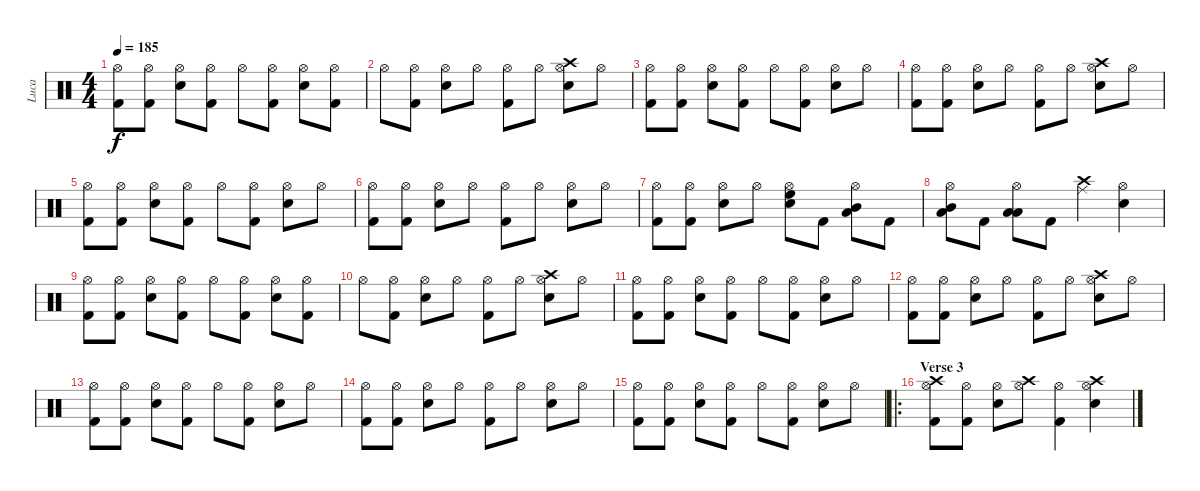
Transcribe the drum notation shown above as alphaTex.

\track ("Luca" "Luca") {instrument percussion}
\staff {score}
\articulation defaults
\ts (4 4)
\tempo 185
\clef neutral
\ks c
("Hi-Hat (open)" "Kick (hit) 2").8{dy f} ("Hi-Hat (open)" "Kick (hit) 2").8 ("Hi-Hat (open)" "Snare (hit) 2").8 ("Hi-Hat (open)" "Kick (hit) 2").8 "Hi-Hat (open)".8 ("Hi-Hat (open)" "Kick (hit) 2").8 ("Hi-Hat (open)" "Snare (hit) 2").8 ("Hi-Hat (open)" "Kick (hit) 2").8 |
"Hi-Hat (open)".8 ("Hi-Hat (open)" "Kick (hit) 2").8 ("Hi-Hat (open)" "Snare (hit) 2").8 "Hi-Hat (open)".8 ("Hi-Hat (open)" "Kick (hit) 2").8 "Hi-Hat (open)".8 ("Hi-Hat (open)" "Crash high (hit)" "Snare (hit) 2").8 "Hi-Hat (open)".8 |
("Hi-Hat (open)" "Kick (hit) 2").8 ("Hi-Hat (open)" "Kick (hit) 2").8 ("Hi-Hat (open)" "Snare (hit) 2").8 ("Hi-Hat (open)" "Kick (hit) 2").8 "Hi-Hat (open)".8 ("Hi-Hat (open)" "Kick (hit) 2").8 ("Hi-Hat (open)" "Snare (hit) 2").8 "Hi-Hat (open)".8 |
("Hi-Hat (open)" "Kick (hit) 2").8 ("Hi-Hat (open)" "Kick (hit) 2").8 ("Hi-Hat (open)" "Snare (hit) 2").8 "Hi-Hat (open)".8 ("Hi-Hat (open)" "Kick (hit) 2").8 "Hi-Hat (open)".8 ("Hi-Hat (open)" "Crash high (hit)" "Snare (hit) 2").8 "Hi-Hat (open)".8 |
("Hi-Hat (open)" "Kick (hit) 2").8 ("Hi-Hat (open)" "Kick (hit) 2").8 ("Hi-Hat (open)" "Snare (hit) 2").8 ("Hi-Hat (open)" "Kick (hit) 2").8 "Hi-Hat (open)".8 ("Hi-Hat (open)" "Kick (hit) 2").8 ("Hi-Hat (open)" "Snare (hit) 2").8 "Hi-Hat (open)".8 |
("Hi-Hat (open)" "Kick (hit) 2").8 ("Hi-Hat (open)" "Kick (hit) 2").8 ("Hi-Hat (open)" "Snare (hit) 2").8 "Hi-Hat (open)".8 ("Hi-Hat (open)" "Kick (hit) 2").8 "Hi-Hat (open)".8 ("Hi-Hat (open)" "Snare (hit) 2").8 "Hi-Hat (open)".8 |
("Hi-Hat (open)" "Kick (hit) 2").8 ("Hi-Hat (open)" "Kick (hit) 2").8 ("Hi-Hat (open)" "Snare (hit) 2").8 "Hi-Hat (open)".8 ("Hi-Hat (open)" "High Floor Tom (hit)" "Snare (hit) 2").8 "Kick (hit) 2".8 ("Hi-Hat (open)" "Mid Tom (hit)" "Low Tom (hit)").8 "Kick (hit) 2".8 |
("Hi-Hat (open)" "Mid Tom (hit)" "Low Floor Tom (hit)").8 "Kick (hit) 2".8 ("Hi-Hat (open)" "Low Tom (hit)" "Low Floor Tom (hit)").8 "Kick (hit) 2".8 ("Crash high (hit)" "Ride (middle)").4 ("Hi-Hat (open)" "Snare (hit) 2").4 |
("Hi-Hat (open)" "Kick (hit) 2").8 ("Hi-Hat (open)" "Kick (hit) 2").8 ("Hi-Hat (open)" "Snare (hit) 2").8 ("Hi-Hat (open)" "Kick (hit) 2").8 "Hi-Hat (open)".8 ("Hi-Hat (open)" "Kick (hit) 2").8 ("Hi-Hat (open)" "Snare (hit) 2").8 ("Hi-Hat (open)" "Kick (hit) 2").8 |
"Hi-Hat (open)".8 ("Hi-Hat (open)" "Kick (hit) 2").8 ("Hi-Hat (open)" "Snare (hit) 2").8 "Hi-Hat (open)".8 ("Hi-Hat (open)" "Kick (hit) 2").8 "Hi-Hat (open)".8 ("Hi-Hat (open)" "Crash high (hit)" "Snare (hit) 2").8 "Hi-Hat (open)".8 |
("Hi-Hat (open)" "Kick (hit) 2").8 ("Hi-Hat (open)" "Kick (hit) 2").8 ("Hi-Hat (open)" "Snare (hit) 2").8 ("Hi-Hat (open)" "Kick (hit) 2").8 "Hi-Hat (open)".8 ("Hi-Hat (open)" "Kick (hit) 2").8 ("Hi-Hat (open)" "Snare (hit) 2").8 "Hi-Hat (open)".8 |
("Hi-Hat (open)" "Kick (hit) 2").8 ("Hi-Hat (open)" "Kick (hit) 2").8 ("Hi-Hat (open)" "Snare (hit) 2").8 "Hi-Hat (open)".8 ("Hi-Hat (open)" "Kick (hit) 2").8 "Hi-Hat (open)".8 ("Hi-Hat (open)" "Crash high (hit)" "Snare (hit) 2").8 "Hi-Hat (open)".8 |
("Hi-Hat (open)" "Kick (hit) 2").8 ("Hi-Hat (open)" "Kick (hit) 2").8 ("Hi-Hat (open)" "Snare (hit) 2").8 ("Hi-Hat (open)" "Kick (hit) 2").8 "Hi-Hat (open)".8 ("Hi-Hat (open)" "Kick (hit) 2").8 ("Hi-Hat (open)" "Snare (hit) 2").8 "Hi-Hat (open)".8 |
("Hi-Hat (open)" "Kick (hit) 2").8 ("Hi-Hat (open)" "Kick (hit) 2").8 ("Hi-Hat (open)" "Snare (hit) 2").8 "Hi-Hat (open)".8 ("Hi-Hat (open)" "Kick (hit) 2").8 "Hi-Hat (open)".8 ("Hi-Hat (open)" "Snare (hit) 2").8 "Hi-Hat (open)".8 |
("Hi-Hat (open)" "Kick (hit) 2").8 ("Hi-Hat (open)" "Kick (hit) 2").8 ("Hi-Hat (open)" "Snare (hit) 2").8 ("Hi-Hat (open)" "Kick (hit) 2").8 "Hi-Hat (open)".8 ("Hi-Hat (open)" "Kick (hit) 2").8 ("Hi-Hat (open)" "Snare (hit) 2").8 "Hi-Hat (open)".8 |
\ro
\section ("" "Verse 3")
("Hi-Hat (open)" "Crash high (hit)" "Kick (hit) 2").8 ("Hi-Hat (open)" "Kick (hit) 2").8 ("Hi-Hat (open)" "Snare (hit) 2").8 ("Hi-Hat (open)" "Crash high (hit)").8 ("Hi-Hat (open)" "Kick (hit) 2").4 ("Hi-Hat (open)" "Crash high (hit)" "Snare (hit) 2").4
